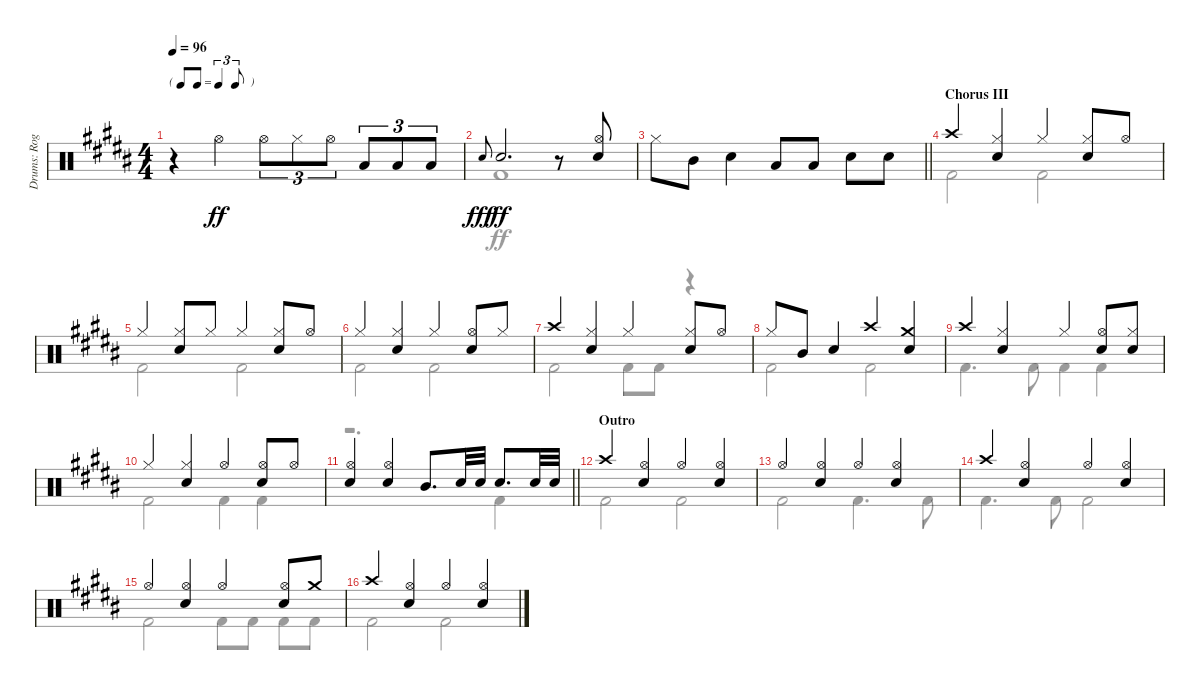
\track ("Drums: Roger" "Drums: Rog") {instrument percussion}
\staff {score}
\articulation defaults
\voice
\ts (4 4)
\tf triplet8th
\tempo 96
\clef neutral
\ks b
r.4{dy ff} "Hi-Hat (open)".4 "Hi-Hat (open)".8{tu (3 2)} "Hi-Hat (closed)".8{tu (3 2)} "Hi-Hat (open)".8{tu (3 2)} "Low Tom (hit)".8{tu (3 2)} "Low Tom (hit)".8{tu (3 2)} "Low Tom (hit)".8{tu (3 2)} |
"Electric Snare (hit)".8{gr onbeat dy fff} "Snare (hit) 2".2{d dy ff} r.8 ("Hi-Hat (open)" "Snare (hit) 2").8 |
\barLineRight lightlight "Hi-Hat (closed)".8 "Mid Tom (hit)".8 "Snare (hit) 2".4 "Low Tom (hit)".8 "Low Tom (hit)".8 "Snare (hit) 2".8 "Snare (hit) 2".8
|
\section ("" "Chorus III")
"Crash high (hit)".4 ("Hi-Hat (closed)" "Snare (hit) 2").4 "Hi-Hat (closed)".4 ("Hi-Hat (closed)" "Snare (hit) 2").8 "Hi-Hat (open)".8 |
"Hi-Hat (closed)".4 ("Hi-Hat (closed)" "Snare (hit) 2").8 "Hi-Hat (closed)".8 "Hi-Hat (closed)".4 ("Hi-Hat (closed)" "Snare (hit) 2").8 "Hi-Hat (open)".8 |
"Hi-Hat (closed)".4 ("Hi-Hat (closed)" "Snare (hit) 2").4 "Hi-Hat (closed)".4 ("Hi-Hat (open)" "Snare (hit) 2").8 "Hi-Hat (closed)".8 |
"Crash high (hit)".4 ("Hi-Hat (closed)" "Snare (hit) 2").4 "Hi-Hat (closed)".4 ("Hi-Hat (closed)" "Snare (hit) 2").8 "Hi-Hat (open)".8 |
"Hi-Hat (closed)".8 "Mid Tom (hit)".8 "Snare (hit) 2".4 "Crash high (hit)".4 ("Crash medium (hit)" "Snare (hit) 2").4 |
"Crash high (hit)".4 ("Hi-Hat (closed)" "Snare (hit) 2").4 "Hi-Hat (closed)".4 ("Hi-Hat (open)" "Snare (hit) 2").8 ("Hi-Hat (closed)" "Snare (hit) 2").8 |
"Hi-Hat (closed)".4 ("Hi-Hat (closed)" "Snare (hit) 2").4 "Hi-Hat (open)".4 ("Hi-Hat (open)" "Snare (hit) 2").8 "Hi-Hat (open)".8 |
\barLineRight lightlight
("Hi-Hat (open)" "Snare (hit) 2").4 ("Hi-Hat (open)" "Snare (hit) 2").4 "Mid Tom (hit)".8{d} "Snare (hit) 2".32 "Snare (hit) 2".32 "Snare (hit) 2".8{d} "Snare (hit) 2".32 "Snare (hit) 2".32 |
\section ("" "Outro")
"Crash high (hit)".4 ("Hi-Hat (open)" "Snare (hit) 2").4 "Hi-Hat (open)".4 ("Hi-Hat (open)" "Snare (hit) 2").4 |
"Hi-Hat (open)".4 ("Hi-Hat (open)" "Snare (hit) 2").4 "Hi-Hat (open)".4 ("Hi-Hat (open)" "Snare (hit) 2").4 |
"Crash high (hit)".4 ("Hi-Hat (open)" "Snare (hit) 2").4 "Hi-Hat (open)".4 ("Hi-Hat (open)" "Snare (hit) 2").4 |
"Hi-Hat (open)".4 ("Hi-Hat (open)" "Snare (hit) 2").4 "Hi-Hat (open)".4 ("Hi-Hat (open)" "Snare (hit) 2").8 "Crash medium (hit)".8 |
"Crash high (hit)".4 ("Hi-Hat (open)" "Snare (hit) 2").4 "Hi-Hat (open)".4 ("Hi-Hat (open)" "Snare (hit) 2").4
\voice
\clef neutral
\ottava regular
\simile none
\ks b
|
"Kick (hit) 2".1 |
\barLineRight lightlight
|
"Kick (hit) 2".2 "Kick (hit) 2".2 |
"Kick (hit) 2".2 "Kick (hit) 2".2 |
"Kick (hit) 2".2 "Kick (hit) 2".2 |
"Kick (hit) 2".2 "Kick (hit) 2".8 "Kick (hit) 2".8 r.4 |
"Kick (hit) 2".2 "Kick (hit) 2".2 |
"Kick (hit) 2".4{d} "Kick (hit) 2".8 "Kick (hit) 2".4 "Kick (hit) 2".4 |
"Kick (hit) 2".2 "Kick (hit) 2".4 "Kick (hit) 2".4 |
\barLineRight lightlight
r.2{d} "Kick (hit) 2".4 |
"Kick (hit) 2".2 "Kick (hit) 2".2 |
"Kick (hit) 2".2 "Kick (hit) 2".4{d} "Kick (hit) 2".8 |
"Kick (hit) 2".4{d} "Kick (hit) 2".8 "Kick (hit) 2".2 |
"Kick (hit) 2".2 "Kick (hit) 2".8 "Kick (hit) 2".8 "Kick (hit) 2".8 "Kick (hit) 2".8 |
"Kick (hit) 2".2 "Kick (hit) 2".2
